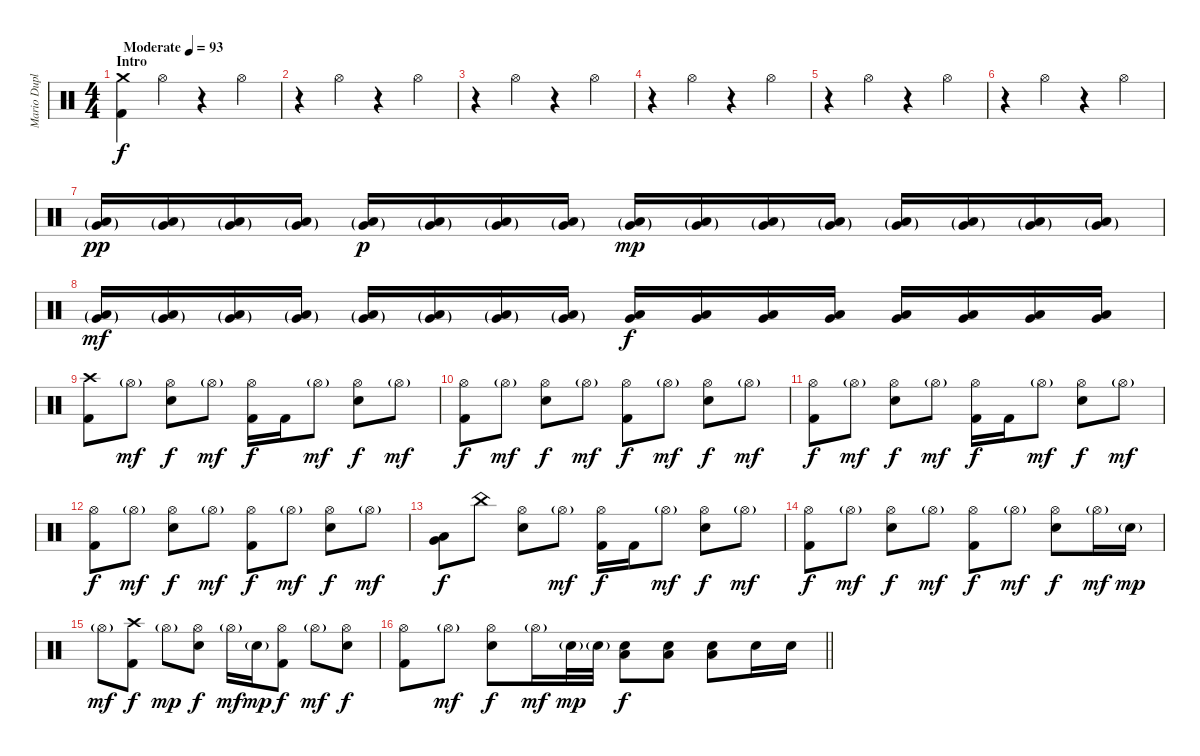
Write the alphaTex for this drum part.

\track ("Mario Duplantier" "Mario Dupl") {instrument percussion}
\staff {score}
\articulation defaults
\ts (4 4)
\section ("" "Intro")
\tempo (93 "Moderate")
\clef neutral
\ks c
("Crash medium (hit)" "Kick (hit) 2").4{dy f} "Hi-Hat (open)".4 r.4 "Hi-Hat (open)".4 |
r.4 "Hi-Hat (open)".4 r.4 "Hi-Hat (open)".4 |
r.4 "Hi-Hat (open)".4 r.4 "Hi-Hat (open)".4 |
r.4 "Hi-Hat (open)".4 r.4 "Hi-Hat (open)".4 |
r.4 "Hi-Hat (open)".4 r.4 "Hi-Hat (open)".4 |
r.4 "Hi-Hat (open)".4 r.4 "Hi-Hat (open)".4 |
("Very Low Tom (hit)"{g} "Low Floor Tom (hit)"{g}).16{dy pp} ("Very Low Tom (hit)"{g} "Low Floor Tom (hit)"{g}).16 ("Very Low Tom (hit)"{g} "Low Floor Tom (hit)"{g}).16 ("Very Low Tom (hit)"{g} "Low Floor Tom (hit)"{g}).16 ("Very Low Tom (hit)"{g} "Low Floor Tom (hit)"{g}).16{dy p} ("Very Low Tom (hit)"{g} "Low Floor Tom (hit)"{g}).16 ("Very Low Tom (hit)"{g} "Low Floor Tom (hit)"{g}).16 ("Very Low Tom (hit)"{g} "Low Floor Tom (hit)"{g}).16 ("Very Low Tom (hit)"{g} "Low Floor Tom (hit)"{g}).16{dy mp} ("Very Low Tom (hit)"{g} "Low Floor Tom (hit)"{g}).16 ("Very Low Tom (hit)"{g} "Low Floor Tom (hit)"{g}).16 ("Very Low Tom (hit)"{g} "Low Floor Tom (hit)"{g}).16 ("Very Low Tom (hit)"{g} "Low Floor Tom (hit)"{g}).16 ("Very Low Tom (hit)"{g} "Low Floor Tom (hit)"{g}).16 ("Very Low Tom (hit)"{g} "Low Floor Tom (hit)"{g}).16 ("Very Low Tom (hit)"{g} "Low Floor Tom (hit)"{g}).16 |
("Very Low Tom (hit)"{g} "Low Floor Tom (hit)"{g}).16{dy mf} ("Very Low Tom (hit)"{g} "Low Floor Tom (hit)"{g}).16 ("Very Low Tom (hit)"{g} "Low Floor Tom (hit)"{g}).16 ("Very Low Tom (hit)"{g} "Low Floor Tom (hit)"{g}).16 ("Very Low Tom (hit)"{g} "Low Floor Tom (hit)"{g}).16 ("Very Low Tom (hit)"{g} "Low Floor Tom (hit)"{g}).16 ("Very Low Tom (hit)"{g} "Low Floor Tom (hit)"{g}).16 ("Very Low Tom (hit)"{g} "Low Floor Tom (hit)"{g}).16 ("Very Low Tom (hit)" "Low Floor Tom (hit)").16{dy f} ("Very Low Tom (hit)" "Low Floor Tom (hit)").16 ("Very Low Tom (hit)" "Low Floor Tom (hit)").16 ("Very Low Tom (hit)" "Low Floor Tom (hit)").16 ("Very Low Tom (hit)" "Low Floor Tom (hit)").16 ("Very Low Tom (hit)" "Low Floor Tom (hit)").16 ("Very Low Tom (hit)" "Low Floor Tom (hit)").16 ("Very Low Tom (hit)" "Low Floor Tom (hit)").16 |
("Crash high (hit)" "Kick (hit) 2").8 "Hi-Hat (open)"{g}.8{dy mf} ("Hi-Hat (open)" "Electric Snare (hit)").8{dy f} "Hi-Hat (open)"{g}.8{dy mf} ("Hi-Hat (open)" "Kick (hit) 2").16{dy f} "Kick (hit) 2".16 "Hi-Hat (open)"{g}.8{dy mf} ("Hi-Hat (open)" "Electric Snare (hit)").8{dy f} "Hi-Hat (open)"{g}.8{dy mf} |
("Hi-Hat (open)" "Kick (hit) 2").8{dy f} "Hi-Hat (open)"{g}.8{dy mf} ("Hi-Hat (open)" "Electric Snare (hit)").8{dy f} "Hi-Hat (open)"{g}.8{dy mf} ("Hi-Hat (open)" "Kick (hit) 2").8{dy f} "Hi-Hat (open)"{g}.8{dy mf} ("Hi-Hat (open)" "Electric Snare (hit)").8{dy f} "Hi-Hat (open)"{g}.8{dy mf} |
("Hi-Hat (open)" "Kick (hit) 2").8{dy f} "Hi-Hat (open)"{g}.8{dy mf} ("Hi-Hat (open)" "Electric Snare (hit)").8{dy f} "Hi-Hat (open)"{g}.8{dy mf} ("Hi-Hat (open)" "Kick (hit) 2").16{dy f} "Kick (hit) 2".16 "Hi-Hat (open)"{g}.8{dy mf} ("Hi-Hat (open)" "Electric Snare (hit)").8{dy f} "Hi-Hat (open)"{g}.8{dy mf} |
("Hi-Hat (open)" "Kick (hit) 2").8{dy f} "Hi-Hat (open)"{g}.8{dy mf} ("Hi-Hat (open)" "Electric Snare (hit)").8{dy f} "Hi-Hat (open)"{g}.8{dy mf} ("Hi-Hat (open)" "Kick (hit) 2").8{dy f} "Hi-Hat (open)"{g}.8{dy mf} ("Hi-Hat (open)" "Electric Snare (hit)").8{dy f} "Hi-Hat (open)"{g}.8{dy mf} |
("Very Low Tom (hit)" "Low Floor Tom (hit)").8{dy f} "China (hit)".8 ("Hi-Hat (open)" "Electric Snare (hit)").8 "Hi-Hat (open)"{g}.8{dy mf} ("Hi-Hat (open)" "Kick (hit) 2").16{dy f} "Kick (hit) 2".16 "Hi-Hat (open)"{g}.8{dy mf} ("Hi-Hat (open)" "Electric Snare (hit)").8{dy f} "Hi-Hat (open)"{g}.8{dy mf} |
("Hi-Hat (open)" "Kick (hit) 2").8{dy f} "Hi-Hat (open)"{g}.8{dy mf} ("Hi-Hat (open)" "Electric Snare (hit)").8{dy f} "Hi-Hat (open)"{g}.8{dy mf} ("Hi-Hat (open)" "Kick (hit) 2").8{dy f} "Hi-Hat (open)"{g}.8{dy mf} ("Hi-Hat (open)" "Electric Snare (hit)").8{dy f} "Hi-Hat (open)"{g}.16{dy mf} "Electric Snare (hit)"{g}.16{dy mp} |
"Hi-Hat (open)"{g}.8{dy mf} ("Crash high (hit)" "Kick (hit) 2").8{dy f} "Hi-Hat (open)"{g}.8{dy mp} ("Hi-Hat (open)" "Electric Snare (hit)").8{dy f} "Hi-Hat (open)"{g}.16{dy mf} "Electric Snare (hit)"{g}.16{dy mp} ("Hi-Hat (open)" "Kick (hit) 2").8{dy f} "Hi-Hat (open)"{g}.8{dy mf} ("Hi-Hat (open)" "Electric Snare (hit)").8{dy f} |
\barLineRight lightlight
("Hi-Hat (open)" "Kick (hit) 2").8 "Hi-Hat (open)"{g}.8{dy mf} ("Hi-Hat (open)" "Electric Snare (hit)").8{dy f} "Hi-Hat (open)"{g}.16{dy mf} "Electric Snare (hit)"{g}.32{dy mp} "Electric Snare (hit)"{g}.32 ("Low Floor Tom (hit)" "Electric Snare (hit)").8{dy f} ("Low Floor Tom (hit)" "Electric Snare (hit)").8 ("Low Floor Tom (hit)" "Electric Snare (hit)").8 "Electric Snare (hit)".16 "Electric Snare (hit)".16
